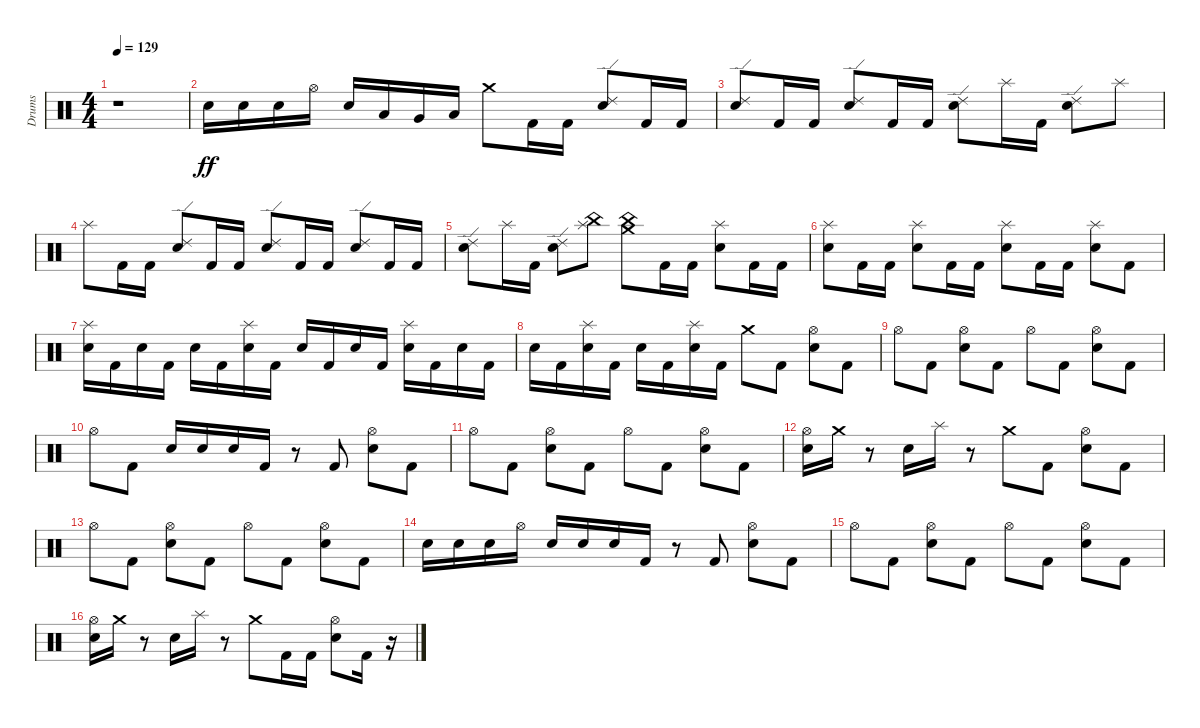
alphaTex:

\track ("Drums" "Drums") {instrument percussion}
\staff {score}
\articulation defaults
\ts (4 4)
\tempo 129
\clef neutral
\ks c
r.1{dy ff} |
"Electric Snare (hit)".16 "Electric Snare (hit)".16 "Electric Snare (hit)".16 "Hi-Hat (open)".16 "Electric Snare (hit)".16 "Low Tom (hit)".16 "Very Low Tom (hit)".16 "Low Floor Tom (hit)".16 "Crash medium (hit)".8 "Kick (hit) 2".16 "Kick (hit) 2".16 ("Electric Snare (hit)" "Ride (edge) 2").8 "Kick (hit) 2".16 "Kick (hit) 2".16 |
("Electric Snare (hit)" "Ride (edge) 2").8 "Kick (hit) 2".16 "Kick (hit) 2".16 ("Electric Snare (hit)" "Ride (edge) 2").8 "Kick (hit) 2".16 "Kick (hit) 2".16 ("Electric Snare (hit)" "Ride (edge) 2").8 "Splash (hit)".16 "Kick (hit) 2".16 ("Electric Snare (hit)" "Ride (edge) 2").8 "Splash (hit)".8 |
"Splash (hit)".8 "Kick (hit) 2".16 "Kick (hit) 2".16 ("Electric Snare (hit)" "Ride (edge) 2").8 "Kick (hit) 2".16 "Kick (hit) 2".16 ("Electric Snare (hit)" "Ride (edge) 2").8 "Kick (hit) 2".16 "Kick (hit) 2".16 ("Electric Snare (hit)" "Ride (edge) 2").8 "Kick (hit) 2".16 "Kick (hit) 2".16 |
("Electric Snare (hit)" "Ride (edge) 2").8 "Splash (hit)".16 "Kick (hit) 2".16 ("Electric Snare (hit)" "Ride (edge) 2").8 ("China (hit)" "Splash (hit)").8 ("China (hit)" "Crash medium (hit)").8 "Kick (hit) 2".16 "Kick (hit) 2".16 ("Electric Snare (hit)" "Splash (hit)").8 "Kick (hit) 2".16 "Kick (hit) 2".16 |
("Electric Snare (hit)" "Splash (hit)").8 "Kick (hit) 2".16 "Kick (hit) 2".16 ("Electric Snare (hit)" "Splash (hit)").8 "Kick (hit) 2".16 "Kick (hit) 2".16 ("Electric Snare (hit)" "Splash (hit)").8 "Kick (hit) 2".16 "Kick (hit) 2".16 ("Electric Snare (hit)" "Splash (hit)").8 "Kick (hit) 2".8 |
("Electric Snare (hit)" "Splash (hit)").16 "Kick (hit) 2".16 "Electric Snare (hit)".16 "Kick (hit) 2".16 "Electric Snare (hit)".16 "Kick (hit) 2".16 ("Electric Snare (hit)" "Splash (hit)").16 "Kick (hit) 2".16 "Electric Snare (hit)".16 "Kick (hit) 2".16 "Electric Snare (hit)".16 "Kick (hit) 2".16 ("Electric Snare (hit)" "Splash (hit)").16 "Kick (hit) 2".16 "Electric Snare (hit)".16 "Kick (hit) 2".16 |
"Electric Snare (hit)".16 "Kick (hit) 2".16 ("Electric Snare (hit)" "Splash (hit)").16 "Kick (hit) 2".16 "Electric Snare (hit)".16 "Kick (hit) 2".16 ("Electric Snare (hit)" "Splash (hit)").16 "Kick (hit) 2".16 "Crash medium (hit)".8 "Kick (hit) 2".8 ("Electric Snare (hit)" "Hi-Hat (open)").8 "Kick (hit) 2".8 |
"Hi-Hat (open)".8 "Kick (hit) 2".8 ("Electric Snare (hit)" "Hi-Hat (open)").8 "Kick (hit) 2".8 "Hi-Hat (open)".8 "Kick (hit) 2".8 ("Electric Snare (hit)" "Hi-Hat (open)").8 "Kick (hit) 2".8 |
"Hi-Hat (open)".8 "Kick (hit) 2".8 "Electric Snare (hit)".16 "Electric Snare (hit)".16 "Electric Snare (hit)".16 "Kick (hit) 2".16 r.8 "Kick (hit) 2".8 ("Electric Snare (hit)" "Hi-Hat (open)").8 "Kick (hit) 2".8 |
"Hi-Hat (open)".8 "Kick (hit) 2".8 ("Electric Snare (hit)" "Hi-Hat (open)").8 "Kick (hit) 2".8 "Hi-Hat (open)".8 "Kick (hit) 2".8 ("Electric Snare (hit)" "Hi-Hat (open)").8 "Kick (hit) 2".8 |
("Electric Snare (hit)" "Hi-Hat (open)").16 "Crash medium (hit)".16 r.8 "Electric Snare (hit)".16 "Splash (hit)".16 r.8 "Crash medium (hit)".8 "Kick (hit) 2".8 ("Electric Snare (hit)" "Hi-Hat (open)").8 "Kick (hit) 2".8 |
"Hi-Hat (open)".8 "Kick (hit) 2".8 ("Electric Snare (hit)" "Hi-Hat (open)").8 "Kick (hit) 2".8 "Hi-Hat (open)".8 "Kick (hit) 2".8 ("Electric Snare (hit)" "Hi-Hat (open)").8 "Kick (hit) 2".8 |
"Electric Snare (hit)".16 "Electric Snare (hit)".16 "Electric Snare (hit)".16 "Hi-Hat (open)".16 "Electric Snare (hit)".16 "Electric Snare (hit)".16 "Electric Snare (hit)".16 "Kick (hit) 2".16 r.8 "Kick (hit) 2".8 ("Electric Snare (hit)" "Hi-Hat (open)").8 "Kick (hit) 2".8 |
"Hi-Hat (open)".8 "Kick (hit) 2".8 ("Electric Snare (hit)" "Hi-Hat (open)").8 "Kick (hit) 2".8 "Hi-Hat (open)".8 "Kick (hit) 2".8 ("Electric Snare (hit)" "Hi-Hat (open)").8 "Kick (hit) 2".8 |
("Electric Snare (hit)" "Hi-Hat (open)").16 "Crash medium (hit)".16 r.8 "Electric Snare (hit)".16 "Splash (hit)".16 r.8 "Crash medium (hit)".8 "Kick (hit) 2".16 "Kick (hit) 2".16 ("Electric Snare (hit)" "Hi-Hat (open)").8 "Kick (hit) 2".16 r.16
